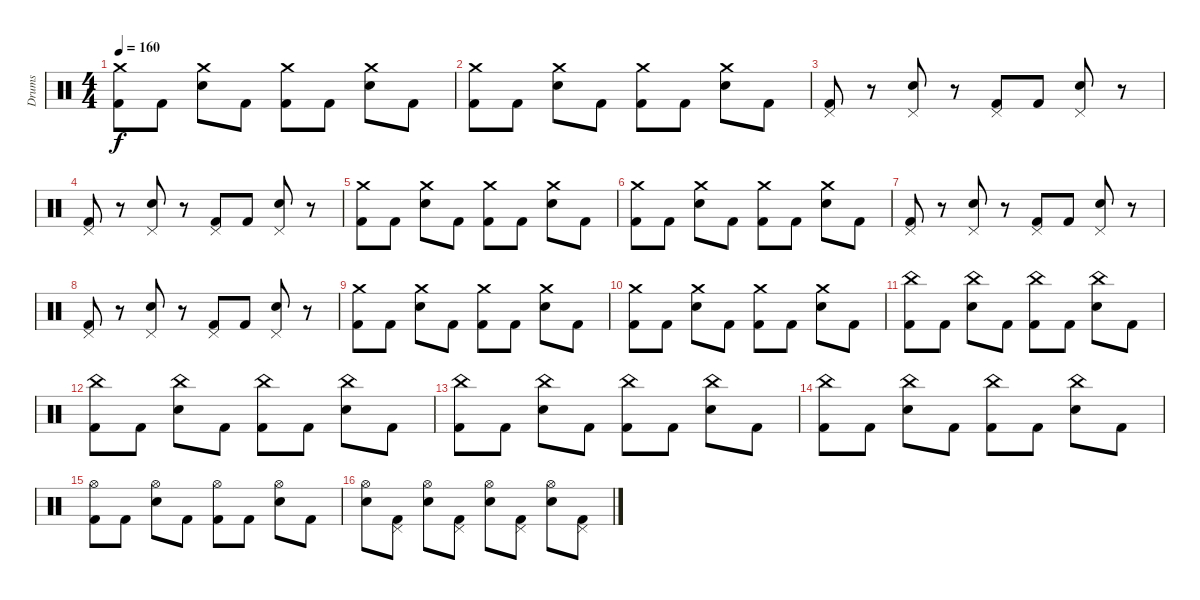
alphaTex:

\track ("Drums" "Drums") {instrument percussion}
\staff {score}
\articulation defaults
\ts (4 4)
\tempo 160
\clef neutral
\ks c
("Crash medium (hit)" "Kick (hit) 2").8{dy f} "Kick (hit) 2".8 ("Crash medium (hit)" "Snare (hit) 2").8 "Kick (hit) 2".8 ("Crash medium (hit)" "Kick (hit) 2").8 "Kick (hit) 2".8 ("Crash medium (hit)" "Snare (hit) 2").8 "Kick (hit) 2".8 |
("Crash medium (hit)" "Kick (hit) 2").8 "Kick (hit) 2".8 ("Crash medium (hit)" "Snare (hit) 2").8 "Kick (hit) 2".8 ("Crash medium (hit)" "Kick (hit) 2").8 "Kick (hit) 2".8 ("Crash medium (hit)" "Snare (hit) 2").8 "Kick (hit) 2".8 |
("Pedal Hi-Hat (hit)" "Kick (hit) 2").8 r.8 ("Pedal Hi-Hat (hit)" "Snare (hit) 2").8 r.8 ("Pedal Hi-Hat (hit)" "Kick (hit) 2").8 "Kick (hit) 2".8 ("Pedal Hi-Hat (hit)" "Snare (hit) 2").8 r.8 |
("Pedal Hi-Hat (hit)" "Kick (hit) 2").8 r.8 ("Pedal Hi-Hat (hit)" "Snare (hit) 2").8 r.8 ("Pedal Hi-Hat (hit)" "Kick (hit) 2").8 "Kick (hit) 2".8 ("Pedal Hi-Hat (hit)" "Snare (hit) 2").8 r.8 |
("Crash medium (hit)" "Kick (hit) 2").8 "Kick (hit) 2".8 ("Crash medium (hit)" "Snare (hit) 2").8 "Kick (hit) 2".8 ("Crash medium (hit)" "Kick (hit) 2").8 "Kick (hit) 2".8 ("Crash medium (hit)" "Snare (hit) 2").8 "Kick (hit) 2".8 |
("Crash medium (hit)" "Kick (hit) 2").8 "Kick (hit) 2".8 ("Crash medium (hit)" "Snare (hit) 2").8 "Kick (hit) 2".8 ("Crash medium (hit)" "Kick (hit) 2").8 "Kick (hit) 2".8 ("Crash medium (hit)" "Snare (hit) 2").8 "Kick (hit) 2".8 |
("Pedal Hi-Hat (hit)" "Kick (hit) 2").8 r.8 ("Pedal Hi-Hat (hit)" "Snare (hit) 2").8 r.8 ("Pedal Hi-Hat (hit)" "Kick (hit) 2").8 "Kick (hit) 2".8 ("Pedal Hi-Hat (hit)" "Snare (hit) 2").8 r.8 |
("Pedal Hi-Hat (hit)" "Kick (hit) 2").8 r.8 ("Pedal Hi-Hat (hit)" "Snare (hit) 2").8 r.8 ("Pedal Hi-Hat (hit)" "Kick (hit) 2").8 "Kick (hit) 2".8 ("Pedal Hi-Hat (hit)" "Snare (hit) 2").8 r.8 |
("Crash medium (hit)" "Kick (hit) 2").8 "Kick (hit) 2".8 ("Crash medium (hit)" "Snare (hit) 2").8 "Kick (hit) 2".8 ("Crash medium (hit)" "Kick (hit) 2").8 "Kick (hit) 2".8 ("Crash medium (hit)" "Snare (hit) 2").8 "Kick (hit) 2".8 |
("Crash medium (hit)" "Kick (hit) 2").8 "Kick (hit) 2".8 ("Crash medium (hit)" "Snare (hit) 2").8 "Kick (hit) 2".8 ("Crash medium (hit)" "Kick (hit) 2").8 "Kick (hit) 2".8 ("Crash medium (hit)" "Snare (hit) 2").8 "Kick (hit) 2".8 |
("China (hit)" "Kick (hit) 2").8 "Kick (hit) 2".8 ("China (hit)" "Snare (hit) 2").8 "Kick (hit) 2".8 ("China (hit)" "Kick (hit) 2").8 "Kick (hit) 2".8 ("China (hit)" "Snare (hit) 2").8 "Kick (hit) 2".8 |
("China (hit)" "Kick (hit) 2").8 "Kick (hit) 2".8 ("China (hit)" "Snare (hit) 2").8 "Kick (hit) 2".8 ("China (hit)" "Kick (hit) 2").8 "Kick (hit) 2".8 ("China (hit)" "Snare (hit) 2").8 "Kick (hit) 2".8 |
("China (hit)" "Kick (hit) 2").8 "Kick (hit) 2".8 ("China (hit)" "Snare (hit) 2").8 "Kick (hit) 2".8 ("China (hit)" "Kick (hit) 2").8 "Kick (hit) 2".8 ("China (hit)" "Snare (hit) 2").8 "Kick (hit) 2".8 |
("China (hit)" "Kick (hit) 2").8 "Kick (hit) 2".8 ("China (hit)" "Snare (hit) 2").8 "Kick (hit) 2".8 ("China (hit)" "Kick (hit) 2").8 "Kick (hit) 2".8 ("China (hit)" "Snare (hit) 2").8 "Kick (hit) 2".8 |
("Hi-Hat (open)" "Kick (hit) 2").8 "Kick (hit) 2".8 ("Hi-Hat (open)" "Snare (hit) 2").8 "Kick (hit) 2".8 ("Hi-Hat (open)" "Kick (hit) 2").8 "Kick (hit) 2".8 ("Hi-Hat (open)" "Snare (hit) 2").8 "Kick (hit) 2".8 |
("Hi-Hat (open)" "Snare (hit) 2").8 ("Pedal Hi-Hat (hit)" "Kick (hit) 2").8 ("Hi-Hat (open)" "Snare (hit) 2").8 ("Pedal Hi-Hat (hit)" "Kick (hit) 2").8 ("Hi-Hat (open)" "Snare (hit) 2").8 ("Pedal Hi-Hat (hit)" "Kick (hit) 2").8 ("Hi-Hat (open)" "Snare (hit) 2").8 ("Pedal Hi-Hat (hit)" "Kick (hit) 2").8
